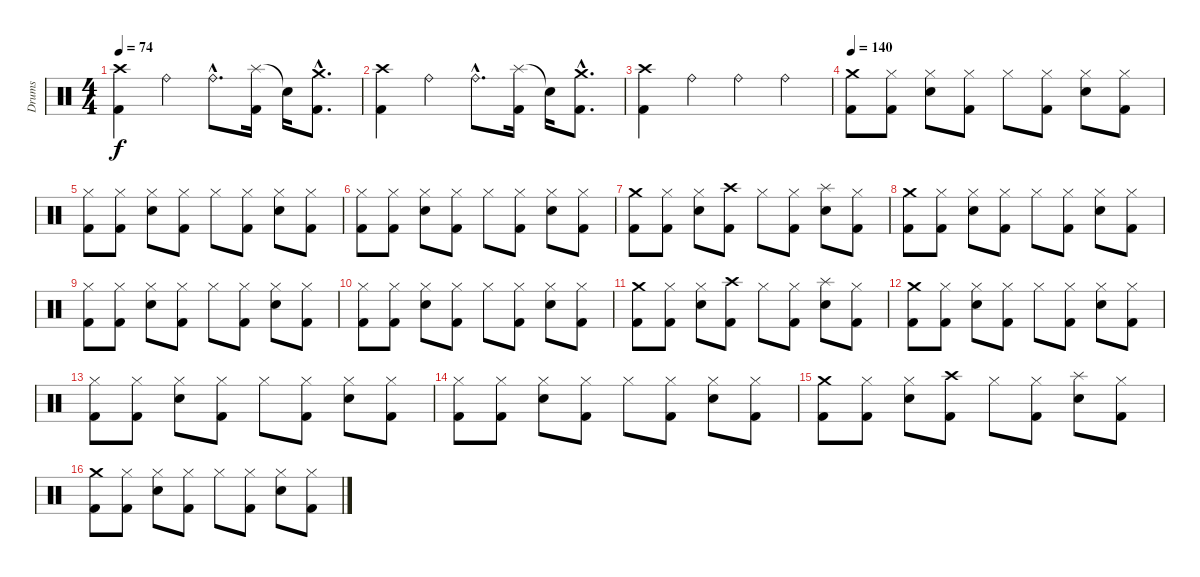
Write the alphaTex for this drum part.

\track ("Drums" "Drums") {instrument percussion}
\staff {score}
\articulation defaults
\ts (4 4)
\tempo 74
\clef neutral
\ks c
("Crash high (hit)" "Kick (hit) 2").4{dy f} "Ride (bell)".4 "Ride (bell)"{hac}.8{d} ("Splash (hit)" "Kick (hit) 2").16 "Snare (hit)"{t}.16 ("Crash medium (hit)"{hac} "Kick (hit) 2"{hac}).8{d} |
("Crash high (hit)" "Kick (hit) 2").4 "Ride (bell)".4 "Ride (bell)"{hac}.8{d} ("Splash (hit)" "Kick (hit) 2").16 "Snare (hit)"{t}.16 ("Crash medium (hit)"{hac} "Kick (hit) 2"{hac}).8{d} |
("Crash high (hit)" "Kick (hit) 2").4 "Ride (bell)".4 "Ride (bell)".4 "Ride (bell)".4 |
\tempo 140
("Crash medium (hit)" "Kick (hit) 2").8 ("Hi-Hat (closed)" "Kick (hit) 2").8 ("Hi-Hat (closed)" "Electric Snare (hit)").8 ("Hi-Hat (closed)" "Kick (hit) 2").8 "Hi-Hat (closed)".8 ("Hi-Hat (closed)" "Kick (hit) 2").8 ("Hi-Hat (closed)" "Electric Snare (hit)").8 ("Hi-Hat (closed)" "Kick (hit) 2").8 |
("Hi-Hat (closed)" "Kick (hit) 2").8 ("Hi-Hat (closed)" "Kick (hit) 2").8 ("Hi-Hat (closed)" "Electric Snare (hit)").8 ("Hi-Hat (closed)" "Kick (hit) 2").8 "Hi-Hat (closed)".8 ("Hi-Hat (closed)" "Kick (hit) 2").8 ("Hi-Hat (closed)" "Electric Snare (hit)").8 ("Hi-Hat (closed)" "Kick (hit) 2").8 |
("Hi-Hat (closed)" "Kick (hit) 2").8 ("Hi-Hat (closed)" "Kick (hit) 2").8 ("Hi-Hat (closed)" "Electric Snare (hit)").8 ("Hi-Hat (closed)" "Kick (hit) 2").8 "Hi-Hat (closed)".8 ("Hi-Hat (closed)" "Kick (hit) 2").8 ("Hi-Hat (closed)" "Electric Snare (hit)").8 ("Hi-Hat (closed)" "Kick (hit) 2").8 |
("Crash medium (hit)" "Kick (hit) 2").8 ("Hi-Hat (closed)" "Kick (hit) 2").8 ("Hi-Hat (closed)" "Electric Snare (hit)").8 ("Crash high (hit)" "Kick (hit) 2").8 "Hi-Hat (closed)".8 ("Hi-Hat (closed)" "Kick (hit) 2").8 ("Splash (hit)" "Electric Snare (hit)").8 ("Hi-Hat (closed)" "Kick (hit) 2").8 |
("Crash medium (hit)" "Kick (hit) 2").8 ("Hi-Hat (closed)" "Kick (hit) 2").8 ("Hi-Hat (closed)" "Electric Snare (hit)").8 ("Hi-Hat (closed)" "Kick (hit) 2").8 "Hi-Hat (closed)".8 ("Hi-Hat (closed)" "Kick (hit) 2").8 ("Hi-Hat (closed)" "Electric Snare (hit)").8 ("Hi-Hat (closed)" "Kick (hit) 2").8 |
("Hi-Hat (closed)" "Kick (hit) 2").8 ("Hi-Hat (closed)" "Kick (hit) 2").8 ("Hi-Hat (closed)" "Electric Snare (hit)").8 ("Hi-Hat (closed)" "Kick (hit) 2").8 "Hi-Hat (closed)".8 ("Hi-Hat (closed)" "Kick (hit) 2").8 ("Hi-Hat (closed)" "Electric Snare (hit)").8 ("Hi-Hat (closed)" "Kick (hit) 2").8 |
("Hi-Hat (closed)" "Kick (hit) 2").8 ("Hi-Hat (closed)" "Kick (hit) 2").8 ("Hi-Hat (closed)" "Electric Snare (hit)").8 ("Hi-Hat (closed)" "Kick (hit) 2").8 "Hi-Hat (closed)".8 ("Hi-Hat (closed)" "Kick (hit) 2").8 ("Hi-Hat (closed)" "Electric Snare (hit)").8 ("Hi-Hat (closed)" "Kick (hit) 2").8 |
("Crash medium (hit)" "Kick (hit) 2").8 ("Hi-Hat (closed)" "Kick (hit) 2").8 ("Hi-Hat (closed)" "Electric Snare (hit)").8 ("Crash high (hit)" "Kick (hit) 2").8 "Hi-Hat (closed)".8 ("Hi-Hat (closed)" "Kick (hit) 2").8 ("Splash (hit)" "Electric Snare (hit)").8 ("Hi-Hat (closed)" "Kick (hit) 2").8 |
("Crash medium (hit)" "Kick (hit) 2").8 ("Hi-Hat (closed)" "Kick (hit) 2").8 ("Hi-Hat (closed)" "Electric Snare (hit)").8 ("Hi-Hat (closed)" "Kick (hit) 2").8 "Hi-Hat (closed)".8 ("Hi-Hat (closed)" "Kick (hit) 2").8 ("Hi-Hat (closed)" "Electric Snare (hit)").8 ("Hi-Hat (closed)" "Kick (hit) 2").8 |
("Hi-Hat (closed)" "Kick (hit) 2").8 ("Hi-Hat (closed)" "Kick (hit) 2").8 ("Hi-Hat (closed)" "Electric Snare (hit)").8 ("Hi-Hat (closed)" "Kick (hit) 2").8 "Hi-Hat (closed)".8 ("Hi-Hat (closed)" "Kick (hit) 2").8 ("Hi-Hat (closed)" "Electric Snare (hit)").8 ("Hi-Hat (closed)" "Kick (hit) 2").8 |
("Hi-Hat (closed)" "Kick (hit) 2").8 ("Hi-Hat (closed)" "Kick (hit) 2").8 ("Hi-Hat (closed)" "Electric Snare (hit)").8 ("Hi-Hat (closed)" "Kick (hit) 2").8 "Hi-Hat (closed)".8 ("Hi-Hat (closed)" "Kick (hit) 2").8 ("Hi-Hat (closed)" "Electric Snare (hit)").8 ("Hi-Hat (closed)" "Kick (hit) 2").8 |
("Crash medium (hit)" "Kick (hit) 2").8 ("Hi-Hat (closed)" "Kick (hit) 2").8 ("Hi-Hat (closed)" "Electric Snare (hit)").8 ("Crash high (hit)" "Kick (hit) 2").8 "Hi-Hat (closed)".8 ("Hi-Hat (closed)" "Kick (hit) 2").8 ("Splash (hit)" "Electric Snare (hit)").8 ("Hi-Hat (closed)" "Kick (hit) 2").8 |
("Crash medium (hit)" "Kick (hit) 2").8 ("Hi-Hat (closed)" "Kick (hit) 2").8 ("Hi-Hat (closed)" "Electric Snare (hit)").8 ("Hi-Hat (closed)" "Kick (hit) 2").8 "Hi-Hat (closed)".8 ("Hi-Hat (closed)" "Kick (hit) 2").8 ("Hi-Hat (closed)" "Electric Snare (hit)").8 ("Hi-Hat (closed)" "Kick (hit) 2").8
